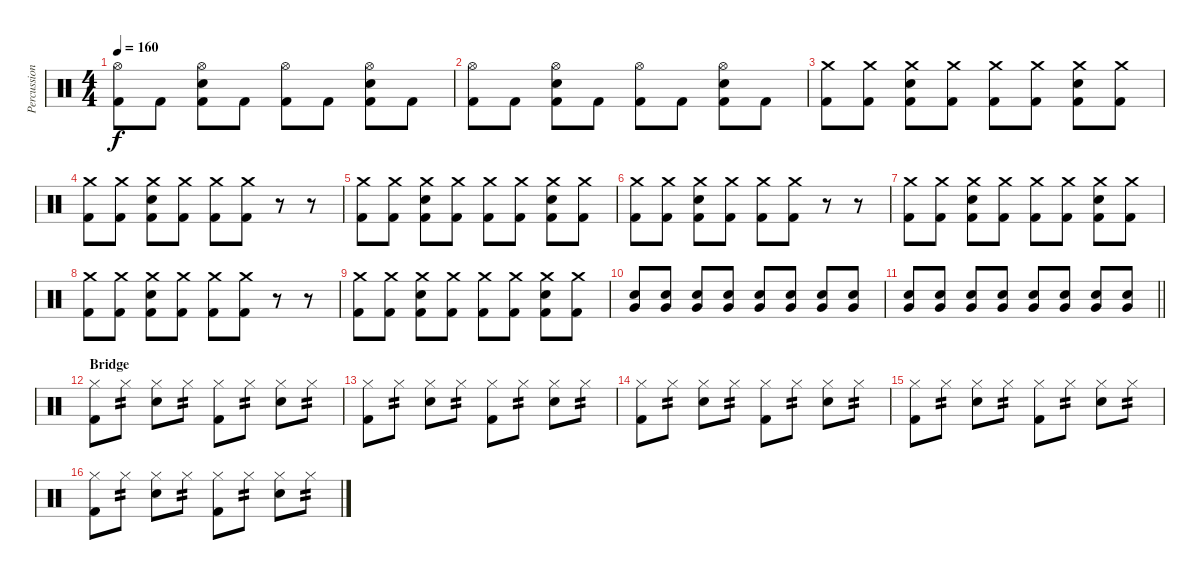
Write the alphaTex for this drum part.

\track ("Percussion" "Percussion") {instrument percussion}
\staff {score}
\articulation defaults
\ts (4 4)
\tempo 160
\clef neutral
\ks c
("Hi-Hat (open)" "Kick (hit) 2").8{dy f} "Kick (hit) 2".8 ("Hi-Hat (open)" "Snare (hit) 2" "Kick (hit) 2").8 "Kick (hit) 2".8 ("Hi-Hat (open)" "Kick (hit) 2").8 "Kick (hit) 2".8 ("Hi-Hat (open)" "Snare (hit) 2" "Kick (hit) 2").8 "Kick (hit) 2".8 |
("Hi-Hat (open)" "Kick (hit) 2").8 "Kick (hit) 2".8 ("Hi-Hat (open)" "Snare (hit) 2" "Kick (hit) 2").8 "Kick (hit) 2".8 ("Hi-Hat (open)" "Kick (hit) 2").8 "Kick (hit) 2".8 ("Hi-Hat (open)" "Snare (hit) 2" "Kick (hit) 2").8 "Kick (hit) 2".8 |
("Crash medium (hit)" "Kick (hit) 2").8 ("Crash medium (hit)" "Kick (hit) 2").8 ("Crash medium (hit)" "Snare (hit) 2" "Kick (hit) 2").8 ("Crash medium (hit)" "Kick (hit) 2").8 ("Crash medium (hit)" "Kick (hit) 2").8 ("Crash medium (hit)" "Kick (hit) 2").8 ("Crash medium (hit)" "Snare (hit) 2" "Kick (hit) 2").8 ("Crash medium (hit)" "Kick (hit) 2").8 |
("Crash medium (hit)" "Kick (hit) 2").8 ("Crash medium (hit)" "Kick (hit) 2").8 ("Crash medium (hit)" "Snare (hit) 2" "Kick (hit) 2").8 ("Crash medium (hit)" "Kick (hit) 2").8 ("Crash medium (hit)" "Kick (hit) 2").8 ("Crash medium (hit)" "Kick (hit) 2").8 r.8 r.8 |
("Crash medium (hit)" "Kick (hit) 2").8 ("Crash medium (hit)" "Kick (hit) 2").8 ("Crash medium (hit)" "Snare (hit) 2" "Kick (hit) 2").8 ("Crash medium (hit)" "Kick (hit) 2").8 ("Crash medium (hit)" "Kick (hit) 2").8 ("Crash medium (hit)" "Kick (hit) 2").8 ("Crash medium (hit)" "Snare (hit) 2" "Kick (hit) 2").8 ("Crash medium (hit)" "Kick (hit) 2").8 |
("Crash medium (hit)" "Kick (hit) 2").8 ("Crash medium (hit)" "Kick (hit) 2").8 ("Crash medium (hit)" "Snare (hit) 2" "Kick (hit) 2").8 ("Crash medium (hit)" "Kick (hit) 2").8 ("Crash medium (hit)" "Kick (hit) 2").8 ("Crash medium (hit)" "Kick (hit) 2").8 r.8 r.8 |
("Crash medium (hit)" "Kick (hit) 2").8 ("Crash medium (hit)" "Kick (hit) 2").8 ("Crash medium (hit)" "Snare (hit) 2" "Kick (hit) 2").8 ("Crash medium (hit)" "Kick (hit) 2").8 ("Crash medium (hit)" "Kick (hit) 2").8 ("Crash medium (hit)" "Kick (hit) 2").8 ("Crash medium (hit)" "Snare (hit) 2" "Kick (hit) 2").8 ("Crash medium (hit)" "Kick (hit) 2").8 |
("Crash medium (hit)" "Kick (hit) 2").8 ("Crash medium (hit)" "Kick (hit) 2").8 ("Crash medium (hit)" "Snare (hit) 2" "Kick (hit) 2").8 ("Crash medium (hit)" "Kick (hit) 2").8 ("Crash medium (hit)" "Kick (hit) 2").8 ("Crash medium (hit)" "Kick (hit) 2").8 r.8 r.8 |
("Crash medium (hit)" "Kick (hit) 2").8 ("Crash medium (hit)" "Kick (hit) 2").8 ("Crash medium (hit)" "Snare (hit) 2" "Kick (hit) 2").8 ("Crash medium (hit)" "Kick (hit) 2").8 ("Crash medium (hit)" "Kick (hit) 2").8 ("Crash medium (hit)" "Kick (hit) 2").8 ("Crash medium (hit)" "Snare (hit) 2" "Kick (hit) 2").8 ("Crash medium (hit)" "Kick (hit) 2").8 |
("Very Low Tom (hit)" "Snare (hit) 2").8 ("Very Low Tom (hit)" "Snare (hit) 2").8 ("Very Low Tom (hit)" "Snare (hit) 2").8 ("Very Low Tom (hit)" "Snare (hit) 2").8 ("Very Low Tom (hit)" "Snare (hit) 2").8 ("Very Low Tom (hit)" "Snare (hit) 2").8 ("Very Low Tom (hit)" "Snare (hit) 2").8 ("Very Low Tom (hit)" "Snare (hit) 2").8 |
\barLineRight lightlight
("Very Low Tom (hit)" "Snare (hit) 2").8 ("Very Low Tom (hit)" "Snare (hit) 2").8 ("Very Low Tom (hit)" "Snare (hit) 2").8 ("Very Low Tom (hit)" "Snare (hit) 2").8 ("Very Low Tom (hit)" "Snare (hit) 2").8 ("Very Low Tom (hit)" "Snare (hit) 2").8 ("Very Low Tom (hit)" "Snare (hit) 2").8 ("Very Low Tom (hit)" "Snare (hit) 2").8 |
\section ("" "Bridge")
("Hi-Hat (closed)" "Kick (hit) 2").8 "Hi-Hat (closed)".8{tp 2} ("Hi-Hat (closed)" "Snare (hit) 2").8 "Hi-Hat (closed)".8{tp 2} ("Hi-Hat (closed)" "Kick (hit) 2").8 "Hi-Hat (closed)".8{tp 2} ("Hi-Hat (closed)" "Snare (hit) 2").8 "Hi-Hat (closed)".8{tp 2} |
("Hi-Hat (closed)" "Kick (hit) 2").8 "Hi-Hat (closed)".8{tp 2} ("Hi-Hat (closed)" "Snare (hit) 2").8 "Hi-Hat (closed)".8{tp 2} ("Hi-Hat (closed)" "Kick (hit) 2").8 "Hi-Hat (closed)".8{tp 2} ("Hi-Hat (closed)" "Snare (hit) 2").8 "Hi-Hat (closed)".8{tp 2} |
("Hi-Hat (closed)" "Kick (hit) 2").8 "Hi-Hat (closed)".8{tp 2} ("Hi-Hat (closed)" "Snare (hit) 2").8 "Hi-Hat (closed)".8{tp 2} ("Hi-Hat (closed)" "Kick (hit) 2").8 "Hi-Hat (closed)".8{tp 2} ("Hi-Hat (closed)" "Snare (hit) 2").8 "Hi-Hat (closed)".8{tp 2} |
("Hi-Hat (closed)" "Kick (hit) 2").8 "Hi-Hat (closed)".8{tp 2} ("Hi-Hat (closed)" "Snare (hit) 2").8 "Hi-Hat (closed)".8{tp 2} ("Hi-Hat (closed)" "Kick (hit) 2").8 "Hi-Hat (closed)".8{tp 2} ("Hi-Hat (closed)" "Snare (hit) 2").8 "Hi-Hat (closed)".8{tp 2} |
("Hi-Hat (closed)" "Kick (hit) 2").8 "Hi-Hat (closed)".8{tp 2} ("Hi-Hat (closed)" "Snare (hit) 2").8 "Hi-Hat (closed)".8{tp 2} ("Hi-Hat (closed)" "Kick (hit) 2").8 "Hi-Hat (closed)".8{tp 2} ("Hi-Hat (closed)" "Snare (hit) 2").8 "Hi-Hat (closed)".8{tp 2}
